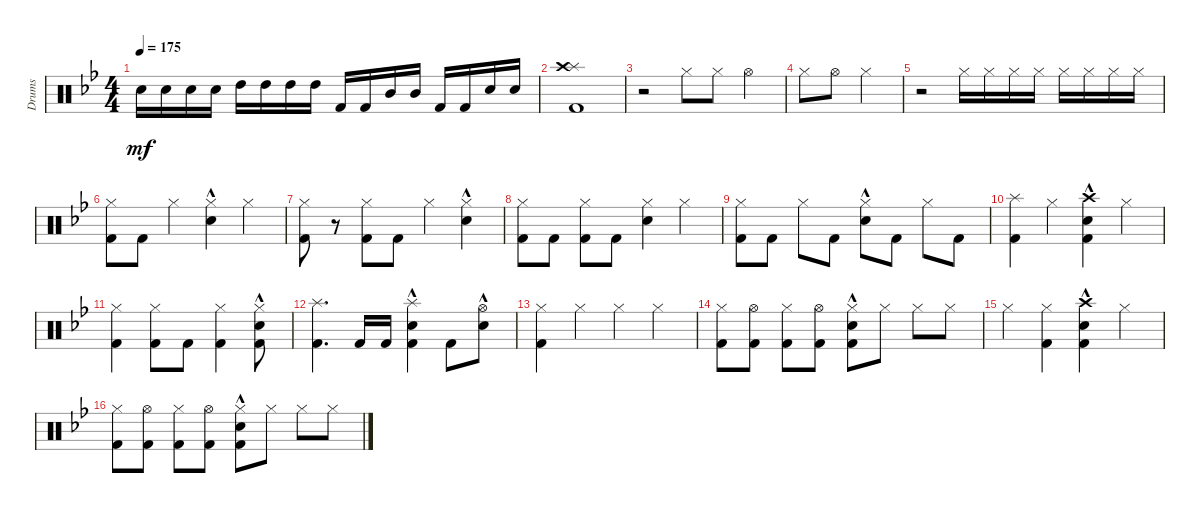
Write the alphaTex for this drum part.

\defaultSystemsLayout 4
\bracketExtendMode groupsimilarinstruments
\otherSystemsTrackNameOrientation horizontal
\track ("Drumkit" "Drums") {instrument percussion}
\staff {score}
\articulation defaults
\ts (4 4)
\tempo 175
\clef neutral
\scale
0.333333
\ks bb "Snare (hit) 2"{acc forcenatural}.16{dy mf} "Snare (hit) 2"{acc forcenatural}.16 "Snare (hit) 2"{acc forcenatural}.16 "Snare (hit) 2"{acc forcenatural}.16 "High Tom (hit)"{acc forcenatural}.16 "High Tom (hit)"{acc forcenatural}.16 "High Tom (hit)"{acc forcenatural}.16 "High Tom (hit)"{acc forcenatural}.16 "Kick (hit) 2"{acc forcenatural}.16 "Kick (hit) 2"{acc forcenatural}.16 "Mid Tom (hit)"{acc forcenatural}.16 "Mid Tom (hit)"{acc forcenatural}.16 "Kick (hit) 2"{acc forcenatural}.16 "Kick (hit) 2"{acc forcenatural}.16 "Snare (hit) 2"{acc forcenatural}.16 "Snare (hit) 2"{acc forcenatural}.16
|
\scale
0.333333 ("Splash (hit)"{acc forcenatural} "Crash high (hit)"{acc forcenatural} "Kick (hit) 2"{acc forcenatural}).1 |
\scale
0.333333 r.2 "Hi-Hat (closed)"{acc forcenatural}.8 "Hi-Hat (closed)"{acc forcenatural}.8 "Hi-Hat (open)"{acc forcenatural}.4 |
\scale
0.333333 "Hi-Hat (closed)"{acc forcenatural}.8 "Hi-Hat (open)"{acc forcenatural}.8 "Hi-Hat (closed)"{acc forcenatural}.4 |
\scale
0.333333 r.2 "Hi-Hat (closed)"{acc forcenatural}.16 "Hi-Hat (closed)"{acc forcenatural}.16 "Hi-Hat (closed)"{acc forcenatural}.16 "Hi-Hat (closed)"{acc forcenatural}.16 "Hi-Hat (closed)"{acc forcenatural}.16 "Hi-Hat (closed)"{acc forcenatural}.16 "Hi-Hat (closed)"{acc forcenatural}.16 "Hi-Hat (closed)"{acc forcenatural}.16 |
\scale
0.333333 ("Hi-Hat (closed)"{acc forcenatural} "Kick (hit) 2"{acc forcenatural}).8 "Kick (hit) 2"{acc forcenatural}.8 "Hi-Hat (closed)"{acc forcenatural}.4 ("Hi-Hat (closed)"{acc forcenatural} "Snare (hit) 2"{hac acc forcenatural}).4 "Hi-Hat (closed)"{acc forcenatural}.4 |
\scale
0.333333 ("Hi-Hat (closed)"{acc forcenatural} "Kick (hit) 2"{acc forcenatural}).8 r.8 ("Hi-Hat (closed)"{acc forcenatural} "Kick (hit) 2"{acc forcenatural}).8 "Kick (hit) 2"{acc forcenatural}.8 "Hi-Hat (closed)"{acc forcenatural}.4 ("Hi-Hat (closed)"{acc forcenatural} "Snare (hit) 2"{hac acc forcenatural}).4 |
\scale
0.333333 ("Kick (hit) 2"{acc forcenatural} "Hi-Hat (closed)"{acc forcenatural}).8 "Kick (hit) 2"{acc forcenatural}.8 ("Kick (hit) 2"{acc forcenatural} "Hi-Hat (closed)"{acc forcenatural}).8 "Kick (hit) 2"{acc forcenatural}.8 ("Hi-Hat (closed)"{acc forcenatural} "Snare (hit) 2"{acc forcenatural}).4 "Hi-Hat (closed)"{acc forcenatural}.4 |
\scale
0.333333 ("Kick (hit) 2"{acc forcenatural} "Hi-Hat (closed)"{acc forcenatural}).8 "Kick (hit) 2"{acc forcenatural}.8 "Hi-Hat (closed)"{acc forcenatural}.8 "Kick (hit) 2"{acc forcenatural}.8 ("Snare (hit) 2"{hac acc forcenatural} "Hi-Hat (closed)"{acc forcenatural}).8 "Kick (hit) 2"{acc forcenatural}.8 "Hi-Hat (closed)"{acc forcenatural}.8 "Kick (hit) 2"{acc forcenatural}.8 |
\scale
0.333333 ("Kick (hit) 2"{acc forcenatural} "Splash (hit)"{acc forcenatural}).4 "Hi-Hat (closed)"{acc forcenatural}.4 ("Crash high (hit)"{acc forcenatural} "Kick (hit) 2"{acc forcenatural} "Snare (hit) 2"{hac acc forcenatural}).4 "Hi-Hat (closed)"{acc forcenatural}.4 |
\scale
0.333333 ("Hi-Hat (closed)"{acc forcenatural} "Kick (hit) 2"{acc forcenatural}).4 ("Kick (hit) 2"{acc forcenatural} "Hi-Hat (closed)"{acc forcenatural}).8 "Kick (hit) 2"{acc forcenatural}.8 ("Kick (hit) 2"{acc forcenatural} "Hi-Hat (closed)"{acc forcenatural}).4 ("Kick (hit) 2"{acc forcenatural} "Hi-Hat (closed)"{acc forcenatural} "Snare (hit) 2"{hac acc forcenatural}).8 |
\scale
0.333333 ("Splash (hit)"{acc forcenatural} "Kick (hit) 2"{acc forcenatural}).4{d} "Kick (hit) 2"{acc forcenatural}.16 "Kick (hit) 2"{acc forcenatural}.16 ("Splash (hit)"{acc forcenatural} "Kick (hit) 2"{acc forcenatural} "Snare (hit) 2"{hac acc forcenatural}).4 "Kick (hit) 2"{acc forcenatural}.8 ("Hi-Hat (open)"{acc forcenatural} "Snare (hit) 2"{hac acc forcenatural}).8 |
\scale
0.333333 ("Kick (hit) 2"{acc forcenatural} "Hi-Hat (closed)"{acc forcenatural}).4 "Hi-Hat (closed)"{acc forcenatural}.4 "Hi-Hat (closed)"{acc forcenatural}.4 "Hi-Hat (closed)"{acc forcenatural}.4 |
\scale
0.333333 ("Kick (hit) 2"{acc forcenatural} "Hi-Hat (closed)"{acc forcenatural}).8 ("Kick (hit) 2"{acc forcenatural} "Hi-Hat (open)"{acc forcenatural}).8 ("Kick (hit) 2"{acc forcenatural} "Hi-Hat (closed)"{acc forcenatural}).8 ("Kick (hit) 2"{acc forcenatural} "Hi-Hat (open)"{acc forcenatural}).8 ("Kick (hit) 2"{acc forcenatural} "Snare (hit) 2"{hac acc forcenatural} "Hi-Hat (closed)"{acc forcenatural}).8 "Hi-Hat (closed)"{acc forcenatural}.8 "Hi-Hat (closed)"{acc forcenatural}.8 "Hi-Hat (closed)"{acc forcenatural}.8 |
\scale
0.333333 "Hi-Hat (closed)"{acc forcenatural}.4 ("Kick (hit) 2"{acc forcenatural} "Hi-Hat (closed)"{acc forcenatural}).4 ("Snare (hit) 2"{hac acc forcenatural} "Crash high (hit)"{acc forcenatural} "Kick (hit) 2"{acc forcenatural}).4 "Hi-Hat (closed)"{acc forcenatural}.4 |
\scale
0.333333 ("Kick (hit) 2"{acc forcenatural} "Hi-Hat (closed)"{acc forcenatural}).8 ("Kick (hit) 2"{acc forcenatural} "Hi-Hat (open)"{acc forcenatural}).8 ("Kick (hit) 2"{acc forcenatural} "Hi-Hat (closed)"{acc forcenatural}).8 ("Kick (hit) 2"{acc forcenatural} "Hi-Hat (open)"{acc forcenatural}).8 ("Kick (hit) 2"{acc forcenatural} "Snare (hit) 2"{hac acc forcenatural} "Hi-Hat (closed)"{acc forcenatural}).8 "Hi-Hat (closed)"{acc forcenatural}.8 "Hi-Hat (closed)"{acc forcenatural}.8 "Hi-Hat (closed)"{acc forcenatural}.8
